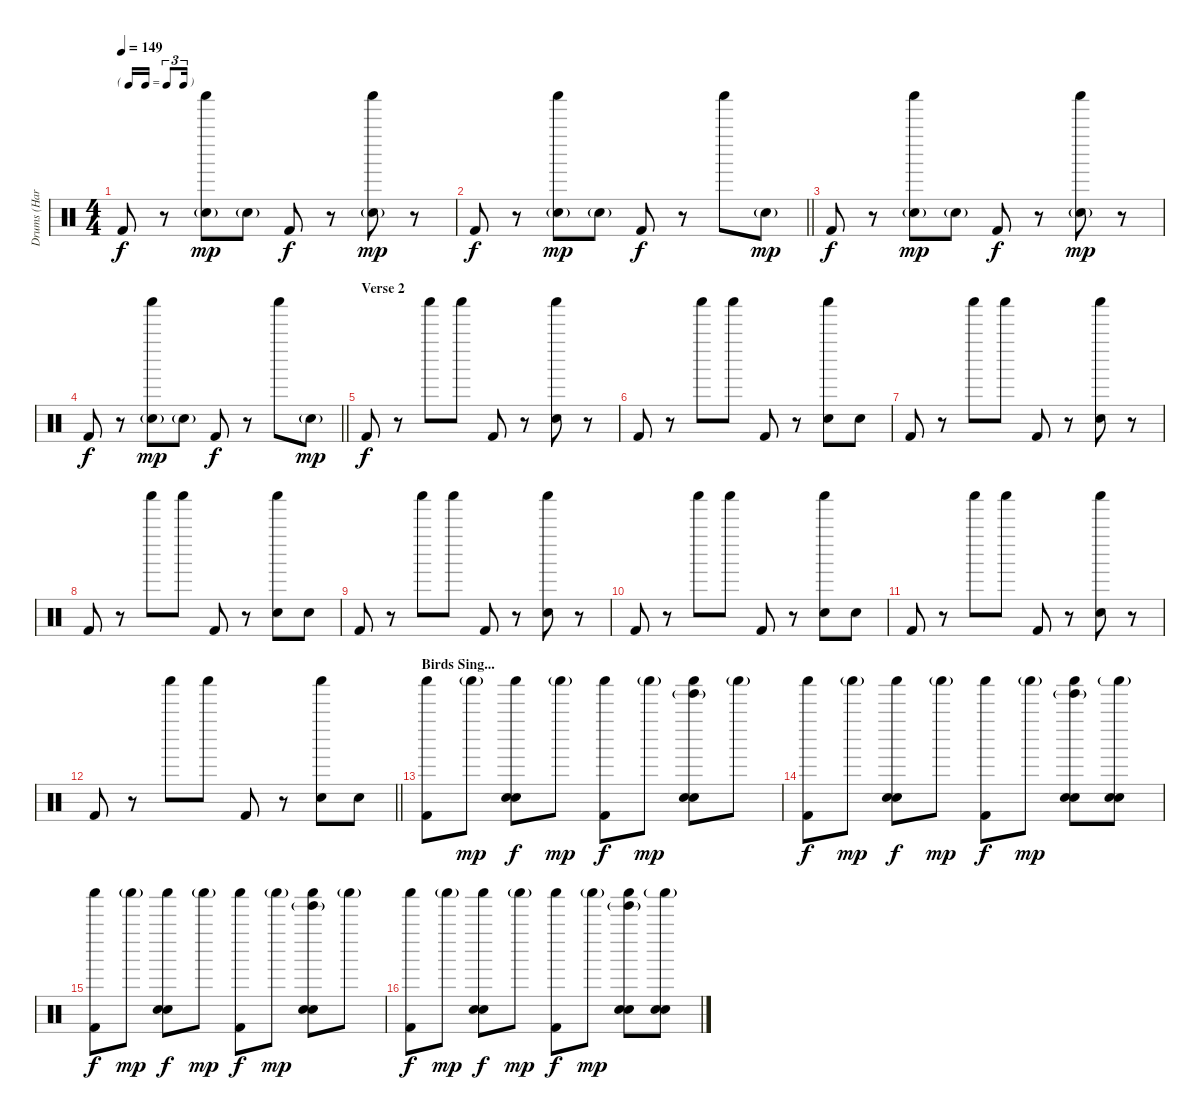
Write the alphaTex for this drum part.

\track ("Drums (Harry)" "Drums (Har") {instrument percussion}
\staff {score}
\articulation defaults
\ts (4 4)
\tf triplet16th
\tempo 149
\clef neutral
\ks c "Kick (hit) 2".8{dy f}
r.8 ("Shaker (hit)" "Hand Clap (hit)"{g}).8{dy mp} "Hand Clap (hit)"{g}.8 "Kick (hit) 2".8{dy f} r.8 ("Shaker (hit)" "Hand Clap (hit)"{g}).8{dy mp} r.8 |
\barLineRight lightlight "Kick (hit) 2".8{dy f}
r.8 ("Shaker (hit)" "Hand Clap (hit)"{g}).8{dy mp} "Hand Clap (hit)"{g}.8 "Kick (hit) 2".8{dy f} r.8 "Shaker (hit)".8 "Hand Clap (hit)"{g}.8{dy mp} |
"Kick (hit) 2".8{dy f} r.8 ("Shaker (hit)" "Hand Clap (hit)"{g}).8{dy mp} "Hand Clap (hit)"{g}.8 "Kick (hit) 2".8{dy f} r.8 ("Shaker (hit)" "Hand Clap (hit)"{g}).8{dy mp} r.8 |
\barLineRight lightlight "Kick (hit) 2".8{dy f}
r.8 ("Shaker (hit)" "Hand Clap (hit)"{g}).8{dy mp} "Hand Clap (hit)"{g}.8 "Kick (hit) 2".8{dy f} r.8 "Shaker (hit)".8 "Hand Clap (hit)"{g}.8{dy mp} |
\section ("" "Verse 2")
"Kick (hit) 2".8{dy f} r.8 "Shaker (hit)".8 "Shaker (hit)".8 "Kick (hit) 2".8 r.8 ("Shaker (hit)" "Hand Clap (hit)").8 r.8 |
"Kick (hit) 2".8 r.8 "Shaker (hit)".8 "Shaker (hit)".8 "Kick (hit) 2".8 r.8 ("Shaker (hit)" "Hand Clap (hit)").8 "Hand Clap (hit)".8 |
"Kick (hit) 2".8 r.8 "Shaker (hit)".8 "Shaker (hit)".8 "Kick (hit) 2".8 r.8 ("Shaker (hit)" "Hand Clap (hit)").8 r.8 |
"Kick (hit) 2".8 r.8 "Shaker (hit)".8 "Shaker (hit)".8 "Kick (hit) 2".8 r.8 ("Shaker (hit)" "Hand Clap (hit)").8 "Hand Clap (hit)".8 |
"Kick (hit) 2".8 r.8 "Shaker (hit)".8 "Shaker (hit)".8 "Kick (hit) 2".8 r.8 ("Shaker (hit)" "Hand Clap (hit)").8 r.8 |
"Kick (hit) 2".8 r.8 "Shaker (hit)".8 "Shaker (hit)".8 "Kick (hit) 2".8 r.8 ("Shaker (hit)" "Hand Clap (hit)").8 "Hand Clap (hit)".8 |
"Kick (hit) 2".8 r.8 "Shaker (hit)".8 "Shaker (hit)".8 "Kick (hit) 2".8 r.8 ("Shaker (hit)" "Hand Clap (hit)").8 r.8 |
\barLineRight lightlight "Kick (hit) 2".8
r.8 "Shaker (hit)".8 "Shaker (hit)".8 "Kick (hit) 2".8 r.8 ("Shaker (hit)" "Hand Clap (hit)").8 "Hand Clap (hit)".8 |
\section ("" "Birds Sing...")
("Shaker (hit)" "Kick (hit) 2").8 "Shaker (hit)"{g}.8{dy mp} ("Shaker (hit)" "Hand Clap (hit)" "Hand Clap (hit)").8{dy f} "Shaker (hit)"{g}.8{dy mp} ("Shaker (hit)" "Kick (hit) 2").8{dy f} "Shaker (hit)"{g}.8{dy mp} ("Tinkle Bell (hit)"{g} "Shaker (hit)" "Hand Clap (hit)" "Hand Clap (hit)").8 "Shaker (hit)"{g}.8 |
("Shaker (hit)" "Kick (hit) 2").8{dy f} "Shaker (hit)"{g}.8{dy mp} ("Shaker (hit)" "Hand Clap (hit)" "Hand Clap (hit)").8{dy f} "Shaker (hit)"{g}.8{dy mp} ("Shaker (hit)" "Kick (hit) 2").8{dy f} "Shaker (hit)"{g}.8{dy mp} ("Tinkle Bell (hit)"{g} "Shaker (hit)" "Hand Clap (hit)" "Hand Clap (hit)").8 ("Shaker (hit)"{g} "Hand Clap (hit)" "Hand Clap (hit)").8 |
("Shaker (hit)" "Kick (hit) 2").8{dy f} "Shaker (hit)"{g}.8{dy mp} ("Shaker (hit)" "Hand Clap (hit)" "Hand Clap (hit)").8{dy f} "Shaker (hit)"{g}.8{dy mp} ("Shaker (hit)" "Kick (hit) 2").8{dy f} "Shaker (hit)"{g}.8{dy mp} ("Tinkle Bell (hit)"{g} "Shaker (hit)" "Hand Clap (hit)" "Hand Clap (hit)").8 "Shaker (hit)"{g}.8 |
("Shaker (hit)" "Kick (hit) 2").8{dy f} "Shaker (hit)"{g}.8{dy mp} ("Shaker (hit)" "Hand Clap (hit)" "Hand Clap (hit)").8{dy f} "Shaker (hit)"{g}.8{dy mp} ("Shaker (hit)" "Kick (hit) 2").8{dy f} "Shaker (hit)"{g}.8{dy mp} ("Tinkle Bell (hit)"{g} "Shaker (hit)" "Hand Clap (hit)" "Hand Clap (hit)").8 ("Shaker (hit)"{g} "Hand Clap (hit)" "Hand Clap (hit)").8
